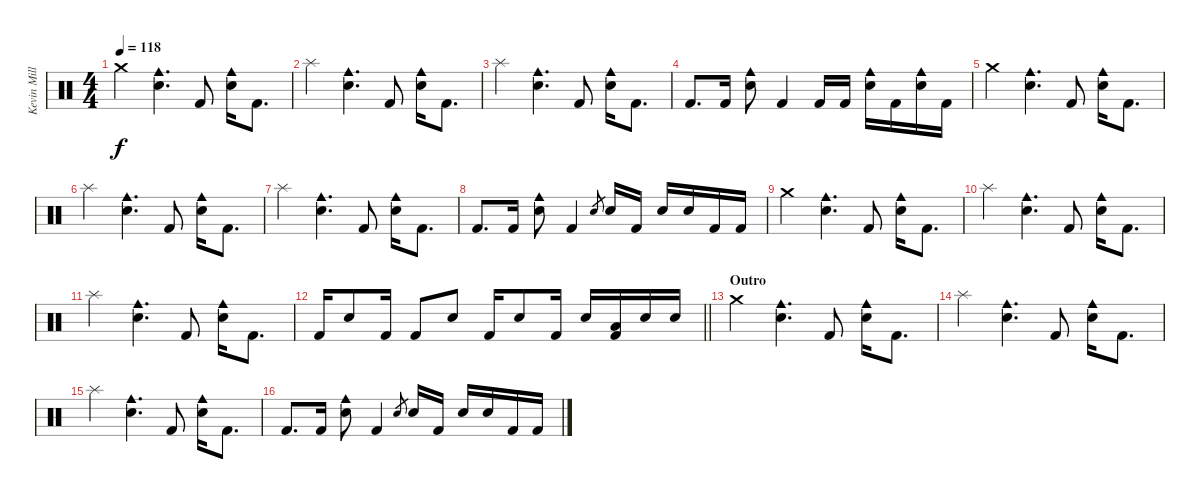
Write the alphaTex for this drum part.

\track ("Kevin Miller (Drums)" "Kevin Mill") {instrument percussion}
\staff {score}
\articulation defaults
\ts (4 4)
\tempo 118
\clef neutral
\ks c "Crash medium (hit)".4{dy f}
("Electric Snare (hit)" "Cowbell medium (hit)").4{d} "Kick (hit) 2".8 ("Electric Snare (hit)" "Cowbell medium (hit)").16 "Kick (hit) 2".8{d} |
"Splash (hit)".4 ("Electric Snare (hit)" "Cowbell medium (hit)").4{d} "Kick (hit) 2".8 ("Electric Snare (hit)" "Cowbell medium (hit)").16 "Kick (hit) 2".8{d} |
"Splash (hit)".4 ("Electric Snare (hit)" "Cowbell medium (hit)").4{d} "Kick (hit) 2".8 ("Electric Snare (hit)" "Cowbell medium (hit)").16 "Kick (hit) 2".8{d} |
"Kick (hit) 2".8{d} "Kick (hit) 2".16 ("Electric Snare (hit)" "Cowbell medium (hit)").8 "Kick (hit) 2".4 "Kick (hit) 2".16 "Kick (hit) 2".16 ("Electric Snare (hit)" "Cowbell medium (hit)").16 "Kick (hit) 2".16 ("Electric Snare (hit)" "Cowbell medium (hit)").16 "Kick (hit) 2".16 |
"Crash medium (hit)".4 ("Electric Snare (hit)" "Cowbell medium (hit)").4{d} "Kick (hit) 2".8 ("Electric Snare (hit)" "Cowbell medium (hit)").16 "Kick (hit) 2".8{d} |
"Splash (hit)".4 ("Electric Snare (hit)" "Cowbell medium (hit)").4{d} "Kick (hit) 2".8 ("Electric Snare (hit)" "Cowbell medium (hit)").16 "Kick (hit) 2".8{d} |
"Splash (hit)".4 ("Electric Snare (hit)" "Cowbell medium (hit)").4{d} "Kick (hit) 2".8 ("Electric Snare (hit)" "Cowbell medium (hit)").16 "Kick (hit) 2".8{d} |
"Kick (hit) 2".8{d} "Kick (hit) 2".16 ("Electric Snare (hit)" "Cowbell medium (hit)").8 "Kick (hit) 2".4 "Electric Snare (hit)".8{gr} "Electric Snare (hit)".16 "Kick (hit) 2".16 "Electric Snare (hit)".16 "Electric Snare (hit)".16 "Kick (hit) 2".16 "Kick (hit) 2".16 |
"Crash medium (hit)".4 ("Electric Snare (hit)" "Cowbell medium (hit)").4{d} "Kick (hit) 2".8 ("Electric Snare (hit)" "Cowbell medium (hit)").16 "Kick (hit) 2".8{d} |
"Splash (hit)".4 ("Electric Snare (hit)" "Cowbell medium (hit)").4{d} "Kick (hit) 2".8 ("Electric Snare (hit)" "Cowbell medium (hit)").16 "Kick (hit) 2".8{d} |
"Splash (hit)".4 ("Electric Snare (hit)" "Cowbell medium (hit)").4{d} "Kick (hit) 2".8 ("Electric Snare (hit)" "Cowbell medium (hit)").16 "Kick (hit) 2".8{d} |
\barLineRight lightlight "Kick (hit) 2".16 "Electric Snare (hit)".8 "Kick (hit) 2".16 "Kick (hit) 2".8 "Electric Snare (hit)".8 "Kick (hit) 2".16 "Electric Snare (hit)".8 "Kick (hit) 2".16 "Electric Snare (hit)".16
("Kick (hit) 2" "Low Tom (hit)").16 "Electric Snare (hit)".16 "Electric Snare (hit)".16 |
\section ("" "Outro")
"Crash medium (hit)".4 ("Electric Snare (hit)" "Cowbell medium (hit)").4{d} "Kick (hit) 2".8 ("Electric Snare (hit)" "Cowbell medium (hit)").16 "Kick (hit) 2".8{d} |
"Splash (hit)".4 ("Electric Snare (hit)" "Cowbell medium (hit)").4{d} "Kick (hit) 2".8 ("Electric Snare (hit)" "Cowbell medium (hit)").16 "Kick (hit) 2".8{d} |
"Splash (hit)".4 ("Electric Snare (hit)" "Cowbell medium (hit)").4{d} "Kick (hit) 2".8 ("Electric Snare (hit)" "Cowbell medium (hit)").16 "Kick (hit) 2".8{d} |
"Kick (hit) 2".8{d} "Kick (hit) 2".16 ("Electric Snare (hit)" "Cowbell medium (hit)").8 "Kick (hit) 2".4 "Electric Snare (hit)".8{gr} "Electric Snare (hit)".16 "Kick (hit) 2".16 "Electric Snare (hit)".16 "Electric Snare (hit)".16 "Kick (hit) 2".16 "Kick (hit) 2".16
